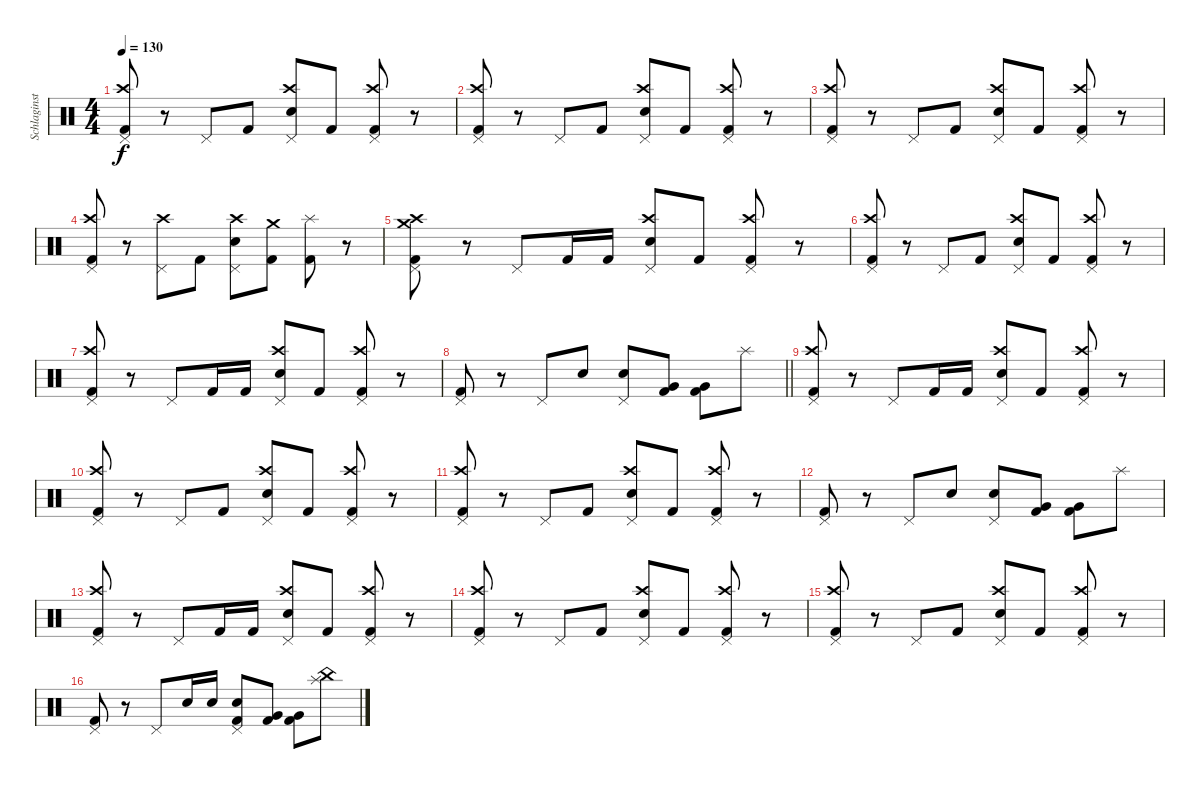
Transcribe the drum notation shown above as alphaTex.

\track ("Schlaginstrumente - Auswahl" "Schlaginst") {instrument percussion}
\staff {score}
\articulation defaults
\ts (4 4)
\tempo 130
\clef neutral
\ks c
("Pedal Hi-Hat (hit)" "Crash high (hit)" "Kick (hit) 2").8{dy f} r.8 "Pedal Hi-Hat (hit)".8 "Kick (hit) 2".8 ("Pedal Hi-Hat (hit)" "Crash high (hit)" "Electric Snare (hit)").8 "Kick (hit) 2".8 ("Pedal Hi-Hat (hit)" "Crash high (hit)" "Kick (hit) 2").8 r.8 |
("Pedal Hi-Hat (hit)" "Crash high (hit)" "Kick (hit) 2").8 r.8 "Pedal Hi-Hat (hit)".8 "Kick (hit) 2".8 ("Pedal Hi-Hat (hit)" "Crash high (hit)" "Electric Snare (hit)").8 "Kick (hit) 2".8 ("Pedal Hi-Hat (hit)" "Crash high (hit)" "Kick (hit) 2").8 r.8 |
("Pedal Hi-Hat (hit)" "Crash high (hit)" "Kick (hit) 2").8 r.8 "Pedal Hi-Hat (hit)".8 "Kick (hit) 2".8 ("Pedal Hi-Hat (hit)" "Crash high (hit)" "Electric Snare (hit)").8 "Kick (hit) 2".8 ("Pedal Hi-Hat (hit)" "Crash high (hit)" "Kick (hit) 2").8 r.8 |
("Pedal Hi-Hat (hit)" "Crash high (hit)" "Kick (hit) 2").8 r.8 ("Pedal Hi-Hat (hit)" "Crash high (hit)").8 "Kick (hit) 2".8 ("Pedal Hi-Hat (hit)" "Crash high (hit)" "Electric Snare (hit)").8 ("Crash medium (hit)" "Kick (hit) 2").8 ("Splash (hit)" "Kick (hit) 2").8 r.8 |
("Pedal Hi-Hat (hit)" "Crash high (hit)" "Crash medium (hit)" "Kick (hit) 2").8 r.8 "Pedal Hi-Hat (hit)".8 "Kick (hit) 2".16 "Kick (hit) 2".16 ("Pedal Hi-Hat (hit)" "Crash high (hit)" "Electric Snare (hit)").8 "Kick (hit) 2".8 ("Pedal Hi-Hat (hit)" "Crash high (hit)" "Kick (hit) 2").8 r.8 |
("Pedal Hi-Hat (hit)" "Crash high (hit)" "Kick (hit) 2").8 r.8 "Pedal Hi-Hat (hit)".8 "Kick (hit) 2".8 ("Pedal Hi-Hat (hit)" "Crash high (hit)" "Electric Snare (hit)").8 "Kick (hit) 2".8 ("Pedal Hi-Hat (hit)" "Crash high (hit)" "Kick (hit) 2").8 r.8 |
("Pedal Hi-Hat (hit)" "Crash high (hit)" "Kick (hit) 2").8 r.8 "Pedal Hi-Hat (hit)".8 "Kick (hit) 2".16 "Kick (hit) 2".16 ("Pedal Hi-Hat (hit)" "Crash high (hit)" "Electric Snare (hit)").8 "Kick (hit) 2".8 ("Pedal Hi-Hat (hit)" "Crash high (hit)" "Kick (hit) 2").8 r.8 |
\barLineRight lightlight
("Pedal Hi-Hat (hit)" "Kick (hit) 2").8 r.8 "Pedal Hi-Hat (hit)".8 "Electric Snare (hit)".8 ("Pedal Hi-Hat (hit)" "Electric Snare (hit)").8 ("Very Low Tom (hit)" "Kick (hit) 2").8 ("Very Low Tom (hit)" "Kick (hit) 2").8 "Splash (hit)".8 |
("Pedal Hi-Hat (hit)" "Crash high (hit)" "Kick (hit) 2").8 r.8 "Pedal Hi-Hat (hit)".8 "Kick (hit) 2".16 "Kick (hit) 2".16 ("Pedal Hi-Hat (hit)" "Crash high (hit)" "Electric Snare (hit)").8 "Kick (hit) 2".8 ("Pedal Hi-Hat (hit)" "Crash high (hit)" "Kick (hit) 2").8 r.8 |
("Pedal Hi-Hat (hit)" "Crash high (hit)" "Kick (hit) 2").8 r.8 "Pedal Hi-Hat (hit)".8 "Kick (hit) 2".8 ("Pedal Hi-Hat (hit)" "Crash high (hit)" "Electric Snare (hit)").8 "Kick (hit) 2".8 ("Pedal Hi-Hat (hit)" "Crash high (hit)" "Kick (hit) 2").8 r.8 |
("Pedal Hi-Hat (hit)" "Crash high (hit)" "Kick (hit) 2").8 r.8 "Pedal Hi-Hat (hit)".8 "Kick (hit) 2".8 ("Pedal Hi-Hat (hit)" "Crash high (hit)" "Electric Snare (hit)").8 "Kick (hit) 2".8 ("Pedal Hi-Hat (hit)" "Crash high (hit)" "Kick (hit) 2").8 r.8 |
("Pedal Hi-Hat (hit)" "Kick (hit) 2").8 r.8 "Pedal Hi-Hat (hit)".8 "Electric Snare (hit)".8 ("Pedal Hi-Hat (hit)" "Electric Snare (hit)").8 ("Very Low Tom (hit)" "Kick (hit) 2").8 ("Very Low Tom (hit)" "Kick (hit) 2").8 "Splash (hit)".8 |
("Pedal Hi-Hat (hit)" "Crash high (hit)" "Kick (hit) 2").8 r.8 "Pedal Hi-Hat (hit)".8 "Kick (hit) 2".16 "Kick (hit) 2".16 ("Pedal Hi-Hat (hit)" "Crash high (hit)" "Electric Snare (hit)").8 "Kick (hit) 2".8 ("Pedal Hi-Hat (hit)" "Crash high (hit)" "Kick (hit) 2").8 r.8 |
("Pedal Hi-Hat (hit)" "Crash high (hit)" "Kick (hit) 2").8 r.8 "Pedal Hi-Hat (hit)".8 "Kick (hit) 2".8 ("Pedal Hi-Hat (hit)" "Crash high (hit)" "Electric Snare (hit)").8 "Kick (hit) 2".8 ("Pedal Hi-Hat (hit)" "Crash high (hit)" "Kick (hit) 2").8 r.8 |
("Pedal Hi-Hat (hit)" "Crash high (hit)" "Kick (hit) 2").8 r.8 "Pedal Hi-Hat (hit)".8 "Kick (hit) 2".8 ("Pedal Hi-Hat (hit)" "Crash high (hit)" "Electric Snare (hit)").8 "Kick (hit) 2".8 ("Pedal Hi-Hat (hit)" "Crash high (hit)" "Kick (hit) 2").8 r.8 |
("Pedal Hi-Hat (hit)" "Kick (hit) 2").8 r.8 "Pedal Hi-Hat (hit)".8 "Electric Snare (hit)".16 "Electric Snare (hit)".16 ("Pedal Hi-Hat (hit)" "Electric Snare (hit)" "Kick (hit) 2").8 ("Very Low Tom (hit)" "Kick (hit) 2").8 ("Very Low Tom (hit)" "Kick (hit) 2").8 ("Splash (hit)" "China (hit)").8
